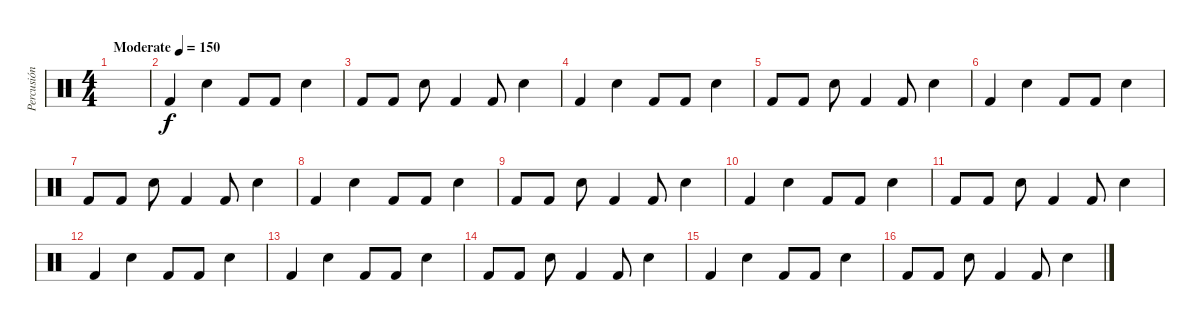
\track ("Percusión" "Percusión") {instrument percussion}
\staff {score}
\articulation defaults
\ts (4 4)
\tempo (150 "Moderate")
\clef neutral
\ks c
|
"Kick (hit) 2".4 "Snare (hit) 2".4 "Kick (hit) 2".8 "Kick (hit) 2".8 "Snare (hit) 2".4 |
"Kick (hit) 2".8 "Kick (hit) 2".8 "Snare (hit) 2".8 "Kick (hit) 2".4 "Kick (hit) 2".8 "Snare (hit) 2".4 |
"Kick (hit) 2".4 "Snare (hit) 2".4 "Kick (hit) 2".8 "Kick (hit) 2".8 "Snare (hit) 2".4 |
"Kick (hit) 2".8 "Kick (hit) 2".8 "Snare (hit) 2".8 "Kick (hit) 2".4 "Kick (hit) 2".8 "Snare (hit) 2".4 |
"Kick (hit) 2".4 "Snare (hit) 2".4 "Kick (hit) 2".8 "Kick (hit) 2".8 "Snare (hit) 2".4 |
"Kick (hit) 2".8 "Kick (hit) 2".8 "Snare (hit) 2".8 "Kick (hit) 2".4 "Kick (hit) 2".8 "Snare (hit) 2".4 |
"Kick (hit) 2".4 "Snare (hit) 2".4 "Kick (hit) 2".8 "Kick (hit) 2".8 "Snare (hit) 2".4 |
"Kick (hit) 2".8 "Kick (hit) 2".8 "Snare (hit) 2".8 "Kick (hit) 2".4 "Kick (hit) 2".8 "Snare (hit) 2".4 |
"Kick (hit) 2".4 "Snare (hit) 2".4 "Kick (hit) 2".8 "Kick (hit) 2".8 "Snare (hit) 2".4 |
"Kick (hit) 2".8 "Kick (hit) 2".8 "Snare (hit) 2".8 "Kick (hit) 2".4 "Kick (hit) 2".8 "Snare (hit) 2".4 |
"Kick (hit) 2".4 "Snare (hit) 2".4 "Kick (hit) 2".8 "Kick (hit) 2".8 "Snare (hit) 2".4 |
"Kick (hit) 2".4 "Snare (hit) 2".4 "Kick (hit) 2".8 "Kick (hit) 2".8 "Snare (hit) 2".4 |
"Kick (hit) 2".8 "Kick (hit) 2".8 "Snare (hit) 2".8 "Kick (hit) 2".4 "Kick (hit) 2".8 "Snare (hit) 2".4 |
"Kick (hit) 2".4 "Snare (hit) 2".4 "Kick (hit) 2".8 "Kick (hit) 2".8 "Snare (hit) 2".4 |
"Kick (hit) 2".8 "Kick (hit) 2".8 "Snare (hit) 2".8 "Kick (hit) 2".4 "Kick (hit) 2".8 "Snare (hit) 2".4
